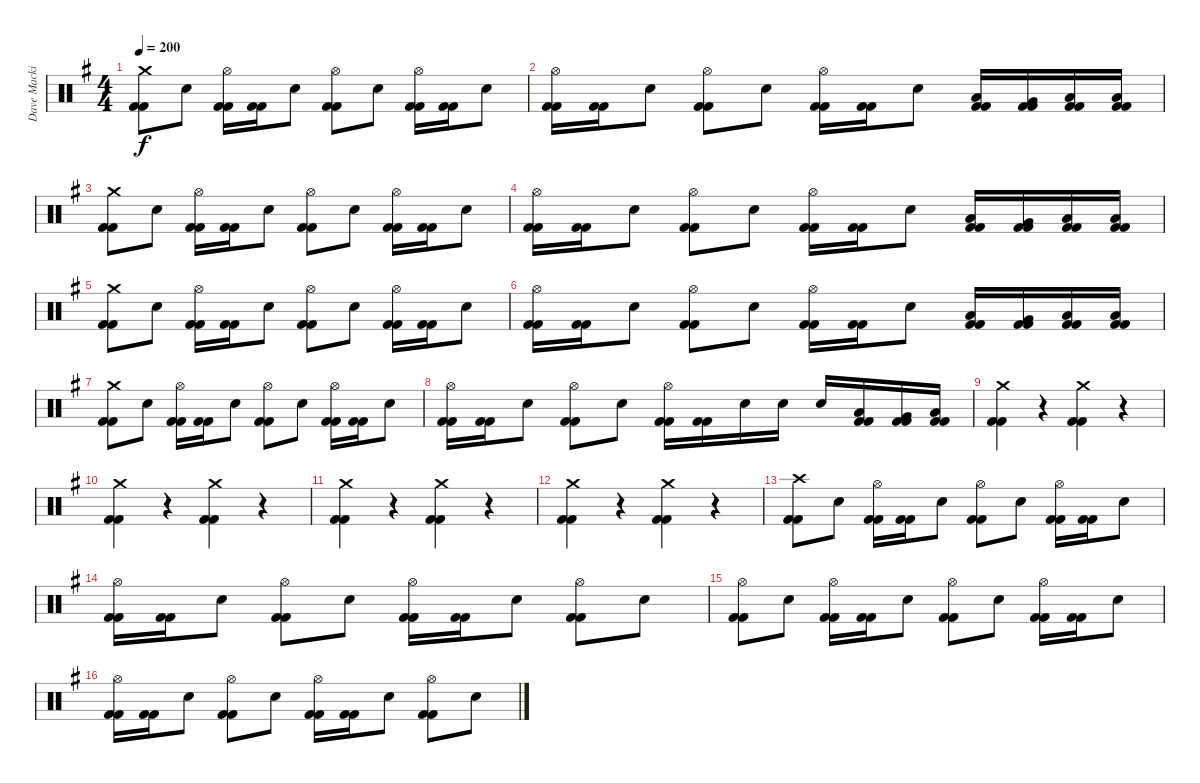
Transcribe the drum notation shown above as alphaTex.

\track ("Dave Mackintosh" "Dave Macki") {instrument percussion}
\staff {score}
\articulation defaults
\ts (4 4)
\tempo 200
\clef neutral
\ks g
("Crash medium (hit)" "Kick (hit) 2" "Kick (hit) 2").8{dy f} "Electric Snare (hit)".8 ("Hi-Hat (open)" "Kick (hit) 2" "Kick (hit) 2").16 ("Kick (hit) 2" "Kick (hit) 2").16 "Electric Snare (hit)".8 ("Hi-Hat (open)" "Kick (hit) 2" "Kick (hit) 2").8 "Electric Snare (hit)".8 ("Hi-Hat (open)" "Kick (hit) 2" "Kick (hit) 2").16 ("Kick (hit) 2" "Kick (hit) 2").16 "Electric Snare (hit)".8 |
("Hi-Hat (open)" "Kick (hit) 2" "Kick (hit) 2").16 ("Kick (hit) 2" "Kick (hit) 2").16 "Electric Snare (hit)".8 ("Hi-Hat (open)" "Kick (hit) 2" "Kick (hit) 2").8 "Electric Snare (hit)".8 ("Hi-Hat (open)" "Kick (hit) 2" "Kick (hit) 2").16 ("Kick (hit) 2" "Kick (hit) 2").16 "Electric Snare (hit)".8 ("Low Tom (hit)" "Kick (hit) 2" "Kick (hit) 2").16 ("Very Low Tom (hit)" "Kick (hit) 2" "Kick (hit) 2").16 ("Low Floor Tom (hit)" "Kick (hit) 2" "Kick (hit) 2").16 ("Low Floor Tom (hit)" "Kick (hit) 2" "Kick (hit) 2").16 |
("Crash medium (hit)" "Kick (hit) 2" "Kick (hit) 2").8 "Electric Snare (hit)".8 ("Hi-Hat (open)" "Kick (hit) 2" "Kick (hit) 2").16 ("Kick (hit) 2" "Kick (hit) 2").16 "Electric Snare (hit)".8 ("Hi-Hat (open)" "Kick (hit) 2" "Kick (hit) 2").8 "Electric Snare (hit)".8 ("Hi-Hat (open)" "Kick (hit) 2" "Kick (hit) 2").16 ("Kick (hit) 2" "Kick (hit) 2").16 "Electric Snare (hit)".8 |
("Hi-Hat (open)" "Kick (hit) 2" "Kick (hit) 2").16 ("Kick (hit) 2" "Kick (hit) 2").16 "Electric Snare (hit)".8 ("Hi-Hat (open)" "Kick (hit) 2" "Kick (hit) 2").8 "Electric Snare (hit)".8 ("Hi-Hat (open)" "Kick (hit) 2" "Kick (hit) 2").16 ("Kick (hit) 2" "Kick (hit) 2").16 "Electric Snare (hit)".8 ("Low Tom (hit)" "Kick (hit) 2" "Kick (hit) 2").16 ("Very Low Tom (hit)" "Kick (hit) 2" "Kick (hit) 2").16 ("Low Floor Tom (hit)" "Kick (hit) 2" "Kick (hit) 2").16 ("Low Floor Tom (hit)" "Kick (hit) 2" "Kick (hit) 2").16 |
("Crash medium (hit)" "Kick (hit) 2" "Kick (hit) 2").8 "Electric Snare (hit)".8 ("Hi-Hat (open)" "Kick (hit) 2" "Kick (hit) 2").16 ("Kick (hit) 2" "Kick (hit) 2").16 "Electric Snare (hit)".8 ("Hi-Hat (open)" "Kick (hit) 2" "Kick (hit) 2").8 "Electric Snare (hit)".8 ("Hi-Hat (open)" "Kick (hit) 2" "Kick (hit) 2").16 ("Kick (hit) 2" "Kick (hit) 2").16 "Electric Snare (hit)".8 |
("Hi-Hat (open)" "Kick (hit) 2" "Kick (hit) 2").16 ("Kick (hit) 2" "Kick (hit) 2").16 "Electric Snare (hit)".8 ("Hi-Hat (open)" "Kick (hit) 2" "Kick (hit) 2").8 "Electric Snare (hit)".8 ("Hi-Hat (open)" "Kick (hit) 2" "Kick (hit) 2").16 ("Kick (hit) 2" "Kick (hit) 2").16 "Electric Snare (hit)".8 ("Low Tom (hit)" "Kick (hit) 2" "Kick (hit) 2").16 ("Very Low Tom (hit)" "Kick (hit) 2" "Kick (hit) 2").16 ("Low Floor Tom (hit)" "Kick (hit) 2" "Kick (hit) 2").16 ("Low Floor Tom (hit)" "Kick (hit) 2" "Kick (hit) 2").16 |
("Crash medium (hit)" "Kick (hit) 2" "Kick (hit) 2").8 "Electric Snare (hit)".8 ("Hi-Hat (open)" "Kick (hit) 2" "Kick (hit) 2").16 ("Kick (hit) 2" "Kick (hit) 2").16 "Electric Snare (hit)".8 ("Hi-Hat (open)" "Kick (hit) 2" "Kick (hit) 2").8 "Electric Snare (hit)".8 ("Hi-Hat (open)" "Kick (hit) 2" "Kick (hit) 2").16 ("Kick (hit) 2" "Kick (hit) 2").16 "Electric Snare (hit)".8 |
("Hi-Hat (open)" "Kick (hit) 2" "Kick (hit) 2").16 ("Kick (hit) 2" "Kick (hit) 2").16 "Electric Snare (hit)".8 ("Hi-Hat (open)" "Kick (hit) 2" "Kick (hit) 2").8 "Electric Snare (hit)".8 ("Hi-Hat (open)" "Kick (hit) 2" "Kick (hit) 2").16 ("Kick (hit) 2" "Kick (hit) 2").16 "Electric Snare (hit)".16 "Electric Snare (hit)".16 "Electric Snare (hit)".16 ("Low Tom (hit)" "Kick (hit) 2" "Kick (hit) 2").16 ("Very Low Tom (hit)" "Kick (hit) 2" "Kick (hit) 2").16 ("Low Floor Tom (hit)" "Kick (hit) 2" "Kick (hit) 2").16 |
("Crash medium (hit)" "Kick (hit) 2" "Kick (hit) 2").4 r.4{volume 0} ("Crash medium (hit)" "Kick (hit) 2" "Kick (hit) 2").4{volume 16} r.4{volume 0} |
("Crash medium (hit)" "Kick (hit) 2" "Kick (hit) 2").4{volume 16} r.4{volume 0} ("Crash medium (hit)" "Kick (hit) 2" "Kick (hit) 2").4{volume 16} r.4{volume 0} |
("Crash medium (hit)" "Kick (hit) 2" "Kick (hit) 2").4{volume 16} r.4{volume 0} ("Crash medium (hit)" "Kick (hit) 2" "Kick (hit) 2").4{volume 16} r.4{volume 0} |
("Crash medium (hit)" "Kick (hit) 2" "Kick (hit) 2").4{volume 16} r.4{volume 0} ("Crash medium (hit)" "Kick (hit) 2" "Kick (hit) 2").4{volume 16} r.4{volume 0} |
("Crash high (hit)" "Kick (hit) 2" "Kick (hit) 2").8{volume 16} "Electric Snare (hit)".8 ("Hi-Hat (open)" "Kick (hit) 2" "Kick (hit) 2").16 ("Kick (hit) 2" "Kick (hit) 2").16 "Electric Snare (hit)".8 ("Hi-Hat (open)" "Kick (hit) 2" "Kick (hit) 2").8 "Electric Snare (hit)".8 ("Hi-Hat (open)" "Kick (hit) 2" "Kick (hit) 2").16 ("Kick (hit) 2" "Kick (hit) 2").16 "Electric Snare (hit)".8 |
("Hi-Hat (open)" "Kick (hit) 2" "Kick (hit) 2").16 ("Kick (hit) 2" "Kick (hit) 2").16 "Electric Snare (hit)".8 ("Hi-Hat (open)" "Kick (hit) 2" "Kick (hit) 2").8 "Electric Snare (hit)".8 ("Hi-Hat (open)" "Kick (hit) 2" "Kick (hit) 2").16 ("Kick (hit) 2" "Kick (hit) 2").16 "Electric Snare (hit)".8 ("Hi-Hat (open)" "Kick (hit) 2" "Kick (hit) 2").8 "Electric Snare (hit)".8 |
("Hi-Hat (open)" "Kick (hit) 2" "Kick (hit) 2").8 "Electric Snare (hit)".8 ("Hi-Hat (open)" "Kick (hit) 2" "Kick (hit) 2").16 ("Kick (hit) 2" "Kick (hit) 2").16 "Electric Snare (hit)".8 ("Hi-Hat (open)" "Kick (hit) 2" "Kick (hit) 2").8 "Electric Snare (hit)".8 ("Hi-Hat (open)" "Kick (hit) 2" "Kick (hit) 2").16 ("Kick (hit) 2" "Kick (hit) 2").16 "Electric Snare (hit)".8 |
("Hi-Hat (open)" "Kick (hit) 2" "Kick (hit) 2").16 ("Kick (hit) 2" "Kick (hit) 2").16 "Electric Snare (hit)".8 ("Hi-Hat (open)" "Kick (hit) 2" "Kick (hit) 2").8 "Electric Snare (hit)".8 ("Hi-Hat (open)" "Kick (hit) 2" "Kick (hit) 2").16 ("Kick (hit) 2" "Kick (hit) 2").16 "Electric Snare (hit)".8 ("Hi-Hat (open)" "Kick (hit) 2" "Kick (hit) 2").8 "Electric Snare (hit)".8
